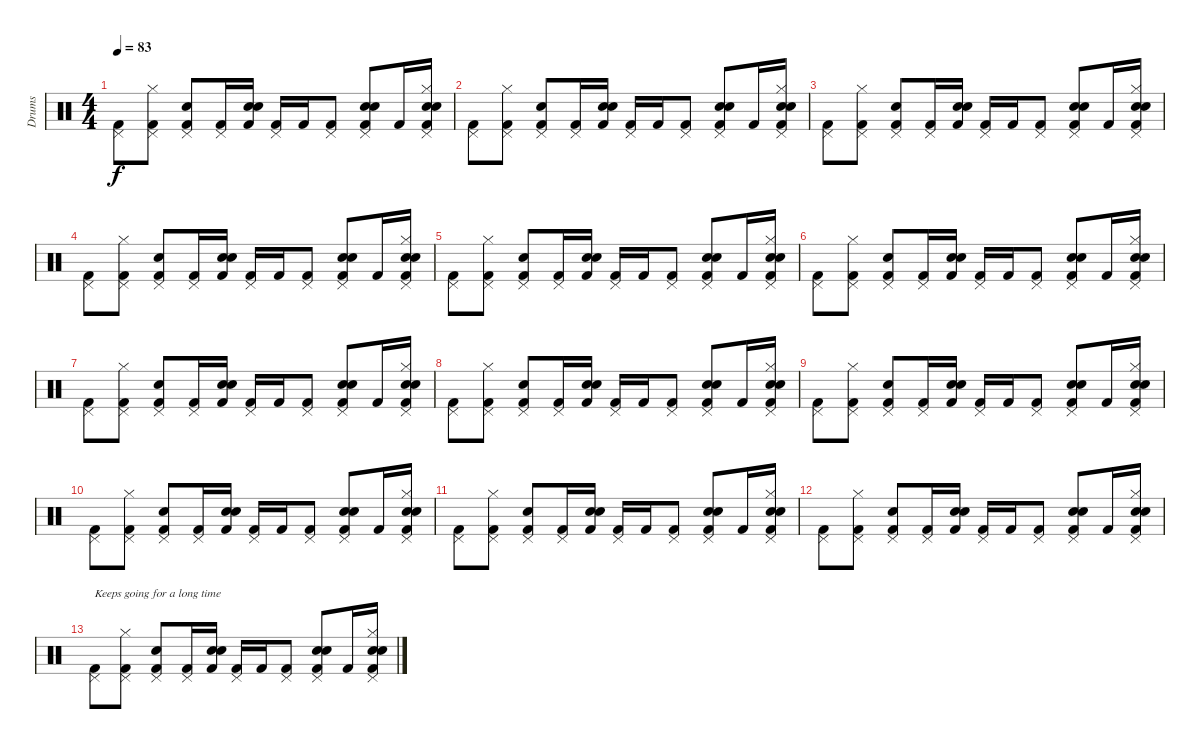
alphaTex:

\track ("Drums" "Drums") {instrument percussion}
\staff {score}
\articulation defaults
\ts (4 4)
\tempo 83
\clef neutral
\ks c
("Kick (hit) 2" "Pedal Hi-Hat (hit)").8{dy f} ("Kick (hit) 2" "Hi-Hat (closed)" "Pedal Hi-Hat (hit)").8 ("Kick (hit) 2" "Electric Snare (hit)" "Pedal Hi-Hat (hit)").8 ("Kick (hit) 2" "Pedal Hi-Hat (hit)").16 ("Kick (hit) 2" "Electric Snare (hit)" "Snare (hit) 2").16 ("Kick (hit) 2" "Pedal Hi-Hat (hit)").16 "Kick (hit) 2".16 ("Kick (hit) 2" "Pedal Hi-Hat (hit)").8 ("Kick (hit) 2" "Electric Snare (hit)" "Snare (hit) 2" "Pedal Hi-Hat (hit)").8 "Kick (hit) 2".16 ("Kick (hit) 2" "Hi-Hat (closed)" "Electric Snare (hit)" "Snare (hit) 2" "Pedal Hi-Hat (hit)").16 |
("Kick (hit) 2" "Pedal Hi-Hat (hit)").8 ("Kick (hit) 2" "Hi-Hat (closed)" "Pedal Hi-Hat (hit)").8 ("Kick (hit) 2" "Electric Snare (hit)" "Pedal Hi-Hat (hit)").8 ("Kick (hit) 2" "Pedal Hi-Hat (hit)").16 ("Kick (hit) 2" "Electric Snare (hit)" "Snare (hit) 2").16 ("Kick (hit) 2" "Pedal Hi-Hat (hit)").16 "Kick (hit) 2".16 ("Kick (hit) 2" "Pedal Hi-Hat (hit)").8 ("Kick (hit) 2" "Electric Snare (hit)" "Snare (hit) 2" "Pedal Hi-Hat (hit)").8 "Kick (hit) 2".16 ("Kick (hit) 2" "Hi-Hat (closed)" "Electric Snare (hit)" "Snare (hit) 2" "Pedal Hi-Hat (hit)").16 |
("Kick (hit) 2" "Pedal Hi-Hat (hit)").8 ("Kick (hit) 2" "Hi-Hat (closed)" "Pedal Hi-Hat (hit)").8 ("Kick (hit) 2" "Electric Snare (hit)" "Pedal Hi-Hat (hit)").8 ("Kick (hit) 2" "Pedal Hi-Hat (hit)").16 ("Kick (hit) 2" "Electric Snare (hit)" "Snare (hit) 2").16 ("Kick (hit) 2" "Pedal Hi-Hat (hit)").16 "Kick (hit) 2".16 ("Kick (hit) 2" "Pedal Hi-Hat (hit)").8 ("Kick (hit) 2" "Electric Snare (hit)" "Snare (hit) 2" "Pedal Hi-Hat (hit)").8 "Kick (hit) 2".16 ("Kick (hit) 2" "Hi-Hat (closed)" "Electric Snare (hit)" "Snare (hit) 2" "Pedal Hi-Hat (hit)").16 |
("Kick (hit) 2" "Pedal Hi-Hat (hit)").8 ("Kick (hit) 2" "Hi-Hat (closed)" "Pedal Hi-Hat (hit)").8 ("Kick (hit) 2" "Electric Snare (hit)" "Pedal Hi-Hat (hit)").8 ("Kick (hit) 2" "Pedal Hi-Hat (hit)").16 ("Kick (hit) 2" "Electric Snare (hit)" "Snare (hit) 2").16 ("Kick (hit) 2" "Pedal Hi-Hat (hit)").16 "Kick (hit) 2".16 ("Kick (hit) 2" "Pedal Hi-Hat (hit)").8 ("Kick (hit) 2" "Electric Snare (hit)" "Snare (hit) 2" "Pedal Hi-Hat (hit)").8 "Kick (hit) 2".16 ("Kick (hit) 2" "Hi-Hat (closed)" "Electric Snare (hit)" "Snare (hit) 2" "Pedal Hi-Hat (hit)").16 |
("Kick (hit) 2" "Pedal Hi-Hat (hit)").8{volume 10} ("Kick (hit) 2" "Hi-Hat (closed)" "Pedal Hi-Hat (hit)").8 ("Kick (hit) 2" "Electric Snare (hit)" "Pedal Hi-Hat (hit)").8 ("Kick (hit) 2" "Pedal Hi-Hat (hit)").16 ("Kick (hit) 2" "Electric Snare (hit)" "Snare (hit) 2").16 ("Kick (hit) 2" "Pedal Hi-Hat (hit)").16 "Kick (hit) 2".16 ("Kick (hit) 2" "Pedal Hi-Hat (hit)").8 ("Kick (hit) 2" "Electric Snare (hit)" "Snare (hit) 2" "Pedal Hi-Hat (hit)").8 "Kick (hit) 2".16 ("Kick (hit) 2" "Hi-Hat (closed)" "Electric Snare (hit)" "Snare (hit) 2" "Pedal Hi-Hat (hit)").16 |
("Kick (hit) 2" "Pedal Hi-Hat (hit)").8{volume 9} ("Kick (hit) 2" "Hi-Hat (closed)" "Pedal Hi-Hat (hit)").8 ("Kick (hit) 2" "Electric Snare (hit)" "Pedal Hi-Hat (hit)").8 ("Kick (hit) 2" "Pedal Hi-Hat (hit)").16 ("Kick (hit) 2" "Electric Snare (hit)" "Snare (hit) 2").16 ("Kick (hit) 2" "Pedal Hi-Hat (hit)").16 "Kick (hit) 2".16 ("Kick (hit) 2" "Pedal Hi-Hat (hit)").8 ("Kick (hit) 2" "Electric Snare (hit)" "Snare (hit) 2" "Pedal Hi-Hat (hit)").8 "Kick (hit) 2".16 ("Kick (hit) 2" "Hi-Hat (closed)" "Electric Snare (hit)" "Snare (hit) 2" "Pedal Hi-Hat (hit)").16 |
("Kick (hit) 2" "Pedal Hi-Hat (hit)").8{volume 8} ("Kick (hit) 2" "Hi-Hat (closed)" "Pedal Hi-Hat (hit)").8 ("Kick (hit) 2" "Electric Snare (hit)" "Pedal Hi-Hat (hit)").8 ("Kick (hit) 2" "Pedal Hi-Hat (hit)").16 ("Kick (hit) 2" "Electric Snare (hit)" "Snare (hit) 2").16 ("Kick (hit) 2" "Pedal Hi-Hat (hit)").16 "Kick (hit) 2".16 ("Kick (hit) 2" "Pedal Hi-Hat (hit)").8 ("Kick (hit) 2" "Electric Snare (hit)" "Snare (hit) 2" "Pedal Hi-Hat (hit)").8 "Kick (hit) 2".16 ("Kick (hit) 2" "Hi-Hat (closed)" "Electric Snare (hit)" "Snare (hit) 2" "Pedal Hi-Hat (hit)").16 |
("Kick (hit) 2" "Pedal Hi-Hat (hit)").8{volume 7} ("Kick (hit) 2" "Hi-Hat (closed)" "Pedal Hi-Hat (hit)").8 ("Kick (hit) 2" "Electric Snare (hit)" "Pedal Hi-Hat (hit)").8 ("Kick (hit) 2" "Pedal Hi-Hat (hit)").16 ("Kick (hit) 2" "Electric Snare (hit)" "Snare (hit) 2").16 ("Kick (hit) 2" "Pedal Hi-Hat (hit)").16 "Kick (hit) 2".16 ("Kick (hit) 2" "Pedal Hi-Hat (hit)").8 ("Kick (hit) 2" "Electric Snare (hit)" "Snare (hit) 2" "Pedal Hi-Hat (hit)").8 "Kick (hit) 2".16 ("Kick (hit) 2" "Hi-Hat (closed)" "Electric Snare (hit)" "Snare (hit) 2" "Pedal Hi-Hat (hit)").16 |
("Kick (hit) 2" "Pedal Hi-Hat (hit)").8{volume 5} ("Kick (hit) 2" "Hi-Hat (closed)" "Pedal Hi-Hat (hit)").8 ("Kick (hit) 2" "Electric Snare (hit)" "Pedal Hi-Hat (hit)").8 ("Kick (hit) 2" "Pedal Hi-Hat (hit)").16 ("Kick (hit) 2" "Electric Snare (hit)" "Snare (hit) 2").16 ("Kick (hit) 2" "Pedal Hi-Hat (hit)").16 "Kick (hit) 2".16 ("Kick (hit) 2" "Pedal Hi-Hat (hit)").8 ("Kick (hit) 2" "Electric Snare (hit)" "Snare (hit) 2" "Pedal Hi-Hat (hit)").8 "Kick (hit) 2".16 ("Kick (hit) 2" "Hi-Hat (closed)" "Electric Snare (hit)" "Snare (hit) 2" "Pedal Hi-Hat (hit)").16 |
("Kick (hit) 2" "Pedal Hi-Hat (hit)").8{volume 3} ("Kick (hit) 2" "Hi-Hat (closed)" "Pedal Hi-Hat (hit)").8 ("Kick (hit) 2" "Electric Snare (hit)" "Pedal Hi-Hat (hit)").8 ("Kick (hit) 2" "Pedal Hi-Hat (hit)").16 ("Kick (hit) 2" "Electric Snare (hit)" "Snare (hit) 2").16 ("Kick (hit) 2" "Pedal Hi-Hat (hit)").16 "Kick (hit) 2".16 ("Kick (hit) 2" "Pedal Hi-Hat (hit)").8 ("Kick (hit) 2" "Electric Snare (hit)" "Snare (hit) 2" "Pedal Hi-Hat (hit)").8 "Kick (hit) 2".16 ("Kick (hit) 2" "Hi-Hat (closed)" "Electric Snare (hit)" "Snare (hit) 2" "Pedal Hi-Hat (hit)").16 |
("Kick (hit) 2" "Pedal Hi-Hat (hit)").8{volume 2} ("Kick (hit) 2" "Hi-Hat (closed)" "Pedal Hi-Hat (hit)").8 ("Kick (hit) 2" "Electric Snare (hit)" "Pedal Hi-Hat (hit)").8 ("Kick (hit) 2" "Pedal Hi-Hat (hit)").16 ("Kick (hit) 2" "Electric Snare (hit)" "Snare (hit) 2").16 ("Kick (hit) 2" "Pedal Hi-Hat (hit)").16 "Kick (hit) 2".16 ("Kick (hit) 2" "Pedal Hi-Hat (hit)").8 ("Kick (hit) 2" "Electric Snare (hit)" "Snare (hit) 2" "Pedal Hi-Hat (hit)").8 "Kick (hit) 2".16 ("Kick (hit) 2" "Hi-Hat (closed)" "Electric Snare (hit)" "Snare (hit) 2" "Pedal Hi-Hat (hit)").16 |
("Kick (hit) 2" "Pedal Hi-Hat (hit)").8{volume 0} ("Kick (hit) 2" "Hi-Hat (closed)" "Pedal Hi-Hat (hit)").8 ("Kick (hit) 2" "Electric Snare (hit)" "Pedal Hi-Hat (hit)").8 ("Kick (hit) 2" "Pedal Hi-Hat (hit)").16 ("Kick (hit) 2" "Electric Snare (hit)" "Snare (hit) 2").16 ("Kick (hit) 2" "Pedal Hi-Hat (hit)").16 "Kick (hit) 2".16 ("Kick (hit) 2" "Pedal Hi-Hat (hit)").8 ("Kick (hit) 2" "Electric Snare (hit)" "Snare (hit) 2" "Pedal Hi-Hat (hit)").8 "Kick (hit) 2".16 ("Kick (hit) 2" "Hi-Hat (closed)" "Electric Snare (hit)" "Snare (hit) 2" "Pedal Hi-Hat (hit)").16 |
("Kick (hit) 2" "Pedal Hi-Hat (hit)").8{txt "Keeps going for a long time"} ("Kick (hit) 2" "Hi-Hat (closed)" "Pedal Hi-Hat (hit)").8 ("Kick (hit) 2" "Electric Snare (hit)" "Pedal Hi-Hat (hit)").8 ("Kick (hit) 2" "Pedal Hi-Hat (hit)").16 ("Kick (hit) 2" "Electric Snare (hit)" "Snare (hit) 2").16 ("Kick (hit) 2" "Pedal Hi-Hat (hit)").16 "Kick (hit) 2".16 ("Kick (hit) 2" "Pedal Hi-Hat (hit)").8 ("Kick (hit) 2" "Electric Snare (hit)" "Snare (hit) 2" "Pedal Hi-Hat (hit)").8 "Kick (hit) 2".16 ("Kick (hit) 2" "Hi-Hat (closed)" "Electric Snare (hit)" "Snare (hit) 2" "Pedal Hi-Hat (hit)").16
